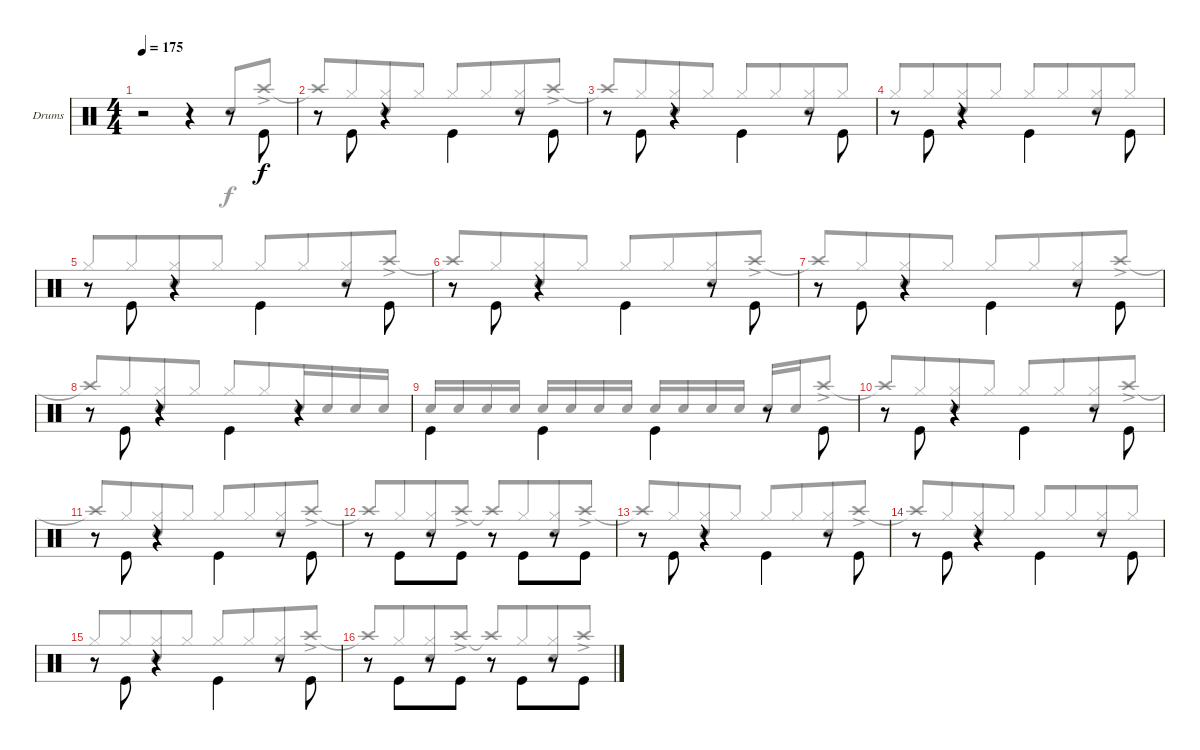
\defaultSystemsLayout 4
\bracketExtendMode groupsimilarinstruments
\firstSystemTrackNameOrientation horizontal
\otherSystemsTrackNameOrientation horizontal
\track ("Drum" "Drums") {instrument percussion}
\staff {score}
\articulation defaults
\voice
\ts (4 4)
\tempo 175
\clef neutral
\scale
0.973518
\ks c
r.2{dy f} r.4 r.8 "Kick (hit)".8{beam invert} |
\scale
1.02648 r.8 "Kick (hit)".8{beam invert} r.4 "Kick (hit)".4{beam invert} r.8 "Kick (hit)".8{beam invert} |
\scale
0.973518 r.8 "Kick (hit)".8{beam invert} r.4 "Kick (hit)".4{beam invert} r.8 "Kick (hit)".8{beam invert} |
\scale
1.02648 r.8 "Kick (hit)".8{beam invert} r.4 "Kick (hit)".4{beam invert} r.8 "Kick (hit)".8{beam invert} |
\scale
0.973518 r.8 "Kick (hit)".8{beam invert} r.4 "Kick (hit)".4{beam invert} r.8 "Kick (hit)".8{beam invert} |
\scale
1.02648 r.8 "Kick (hit)".8{beam invert} r.4 "Kick (hit)".4{beam invert} r.8 "Kick (hit)".8{beam invert} |
\scale
0.973518 r.8 "Kick (hit)".8{beam invert} r.4 "Kick (hit)".4{beam invert} r.8 "Kick (hit)".8{beam invert} |
\scale
1.02648 r.8 "Kick (hit)".8{beam invert} r.4 "Kick (hit)".4{beam invert} r.4 |
\scale
0.973518 "Kick (hit)".4{beam invert} "Kick (hit)".4{beam invert} "Kick (hit)".4{beam invert} r.8 "Kick (hit)".8{beam invert} |
\scale
1.02648 r.8 "Kick (hit)".8{beam invert} r.4 "Kick (hit)".4{beam invert} r.8 "Kick (hit)".8{beam invert} |
\scale
0.973518 r.8 "Kick (hit)".8{beam invert} r.4 "Kick (hit)".4{beam invert} r.8 "Kick (hit)".8{beam invert} |
\scale
1.02648 r.8 "Kick (hit)".8{beam invert beam merge} r.8{beam merge} "Kick (hit)".8 r.8 "Kick (hit)".8{beam invert beam merge} r.8{beam merge} "Kick (hit)".8 |
\scale
0.973518 r.8 "Kick (hit)".8{beam invert} r.4 "Kick (hit)".4{beam invert} r.8 "Kick (hit)".8{beam invert} |
\scale
1.02648 r.8 "Kick (hit)".8{beam invert} r.4 "Kick (hit)".4{beam invert} r.8 "Kick (hit)".8{beam invert} |
\scale
0.973518 r.8 "Kick (hit)".8{beam invert} r.4 "Kick (hit)".4{beam invert} r.8 "Kick (hit)".8{beam invert} |
\scale
1.02648 r.8 "Kick (hit)".8{beam invert beam merge} r.8{beam merge} "Kick (hit)".8 r.8 "Kick (hit)".8{beam invert beam merge} r.8{beam merge} "Kick (hit)".8
\voice
\clef neutral
\ottava regular
\simile none
\scale
0.973518
\ks c
r.2{dy f} r.4 "Snare (hit) 2".8{beam invert} "Crash high (hit)"{ac}.8 |
\scale
1.02648 "Crash high (hit)"{t}.8{beam invert beam merge} "Hi-Hat (closed)".8{beam merge} ("Hi-Hat (closed)" "Snare (hit) 2").8{beam merge} "Hi-Hat (closed)".8 "Hi-Hat (closed)".8{beam invert beam merge} "Hi-Hat (closed)".8{beam merge} ("Hi-Hat (closed)" "Snare (hit) 2").8{beam merge} "Crash high (hit)"{ac}.8 |
\scale
0.973518 "Crash high (hit)"{t}.8{beam invert beam merge} "Hi-Hat (closed)".8{beam merge} ("Hi-Hat (closed)" "Snare (hit) 2").8{beam merge} "Hi-Hat (closed)".8 "Hi-Hat (closed)".8{beam invert beam merge} "Hi-Hat (closed)".8{beam merge} ("Hi-Hat (closed)" "Snare (hit) 2").8{beam merge} "Hi-Hat (closed)".8 |
\scale
1.02648 "Hi-Hat (closed)".8{beam invert beam merge} "Hi-Hat (closed)".8{beam merge} ("Hi-Hat (closed)" "Snare (hit) 2").8{beam merge} "Hi-Hat (closed)".8 "Hi-Hat (closed)".8{beam invert beam merge} "Hi-Hat (closed)".8{beam merge} ("Hi-Hat (closed)" "Snare (hit) 2").8{beam merge} "Hi-Hat (closed)".8 |
\scale
0.973518 "Hi-Hat (closed)".8{beam invert beam merge} "Hi-Hat (closed)".8{beam merge} ("Hi-Hat (closed)" "Snare (hit) 2").8{beam merge} "Hi-Hat (closed)".8 "Hi-Hat (closed)".8{beam invert beam merge} "Hi-Hat (closed)".8{beam merge} ("Hi-Hat (closed)" "Snare (hit) 2").8{beam merge} "Crash high (hit)"{ac}.8 |
\scale
1.02648 "Crash high (hit)"{t}.8{beam invert beam merge} "Hi-Hat (closed)".8{beam merge} ("Hi-Hat (closed)" "Snare (hit) 2").8{beam merge} "Hi-Hat (closed)".8 "Hi-Hat (closed)".8{beam invert beam merge} "Hi-Hat (closed)".8{beam merge} ("Hi-Hat (closed)" "Snare (hit) 2").8{beam merge} "Crash high (hit)"{ac}.8 |
\scale
0.973518 "Crash high (hit)"{t}.8{beam invert beam merge} "Hi-Hat (closed)".8{beam merge} ("Hi-Hat (closed)" "Snare (hit) 2").8{beam merge} "Hi-Hat (closed)".8 "Hi-Hat (closed)".8{beam invert beam merge} "Hi-Hat (closed)".8{beam merge} ("Hi-Hat (closed)" "Snare (hit) 2").8{beam merge} "Crash high (hit)"{ac}.8 |
\scale
1.02648 "Crash high (hit)"{t}.8{beam invert beam merge} "Hi-Hat (closed)".8{beam merge} ("Hi-Hat (closed)" "Snare (hit) 2").8{beam merge} "Hi-Hat (closed)".8 "Hi-Hat (closed)".8{beam invert beam merge} "Hi-Hat (closed)".8{beam merge} "Snare (hit) 2".16 "Snare (hit) 2".16 "Snare (hit) 2".16 "Snare (hit) 2".16 |
\scale
0.973518 "Snare (hit) 2".16{beam invert} "Snare (hit) 2".16 "Snare (hit) 2".16 "Snare (hit) 2".16 "Snare (hit) 2".16{beam invert} "Snare (hit) 2".16 "Snare (hit) 2".16 "Snare (hit) 2".16 "Snare (hit) 2".16{beam invert} "Snare (hit) 2".16 "Snare (hit) 2".16 "Snare (hit) 2".16 "Snare (hit) 2".16{beam invert} "Snare (hit) 2".16 "Crash high (hit)"{ac}.8 |
\scale
1.02648 "Crash high (hit)"{t}.8{beam invert beam merge} "Hi-Hat (closed)".8{beam merge} ("Hi-Hat (closed)" "Snare (hit) 2").8{beam merge} "Hi-Hat (closed)".8 "Hi-Hat (closed)".8{beam invert beam merge} "Hi-Hat (closed)".8{beam merge} ("Hi-Hat (closed)" "Snare (hit) 2").8{beam merge} "Crash high (hit)"{ac}.8 |
\scale
0.973518 "Crash high (hit)"{t}.8{beam invert beam merge} "Hi-Hat (closed)".8{beam merge} ("Hi-Hat (closed)" "Snare (hit) 2").8{beam merge} "Hi-Hat (closed)".8 "Hi-Hat (closed)".8{beam invert beam merge} "Hi-Hat (closed)".8{beam merge} ("Hi-Hat (closed)" "Snare (hit) 2").8{beam merge} "Crash high (hit)"{ac}.8 |
\scale
1.02648 "Crash high (hit)"{t}.8{beam invert beam merge} "Hi-Hat (closed)".8{beam merge} ("Hi-Hat (closed)" "Snare (hit) 2").8{beam merge} "Crash high (hit)"{ac}.8 "Crash high (hit)"{t}.8{beam invert beam merge} "Hi-Hat (closed)".8{beam merge} ("Hi-Hat (closed)" "Snare (hit) 2").8{beam merge} "Crash high (hit)"{ac}.8 |
\scale
0.973518 "Crash high (hit)"{t}.8{beam invert beam merge} "Hi-Hat (closed)".8{beam merge} ("Hi-Hat (closed)" "Snare (hit) 2").8{beam merge} "Hi-Hat (closed)".8 "Hi-Hat (closed)".8{beam invert beam merge} "Hi-Hat (closed)".8{beam merge} ("Hi-Hat (closed)" "Snare (hit) 2").8{beam merge} "Crash high (hit)"{ac}.8 |
\scale
1.02648 "Crash high (hit)"{t}.8{beam invert beam merge} "Hi-Hat (closed)".8{beam merge} ("Hi-Hat (closed)" "Snare (hit) 2").8{beam merge} "Hi-Hat (closed)".8 "Hi-Hat (closed)".8{beam invert beam merge} "Hi-Hat (closed)".8{beam merge} ("Hi-Hat (closed)" "Snare (hit) 2").8{beam merge} "Hi-Hat (closed)".8 |
\scale
0.973518 "Hi-Hat (closed)".8{beam invert beam merge} "Hi-Hat (closed)".8{beam merge} ("Hi-Hat (closed)" "Snare (hit) 2").8{beam merge} "Hi-Hat (closed)".8 "Hi-Hat (closed)".8{beam invert beam merge} "Hi-Hat (closed)".8{beam merge} ("Hi-Hat (closed)" "Snare (hit) 2").8{beam merge} "Crash high (hit)"{ac}.8 |
\scale
1.02648 "Crash high (hit)"{t}.8{beam invert beam merge} "Hi-Hat (closed)".8{beam merge} ("Hi-Hat (closed)" "Snare (hit) 2").8{beam merge} "Crash high (hit)"{ac}.8 "Crash high (hit)"{t}.8{beam invert beam merge} "Hi-Hat (closed)".8{beam merge} ("Hi-Hat (closed)" "Snare (hit) 2").8{beam merge} "Crash high (hit)"{ac}.8
